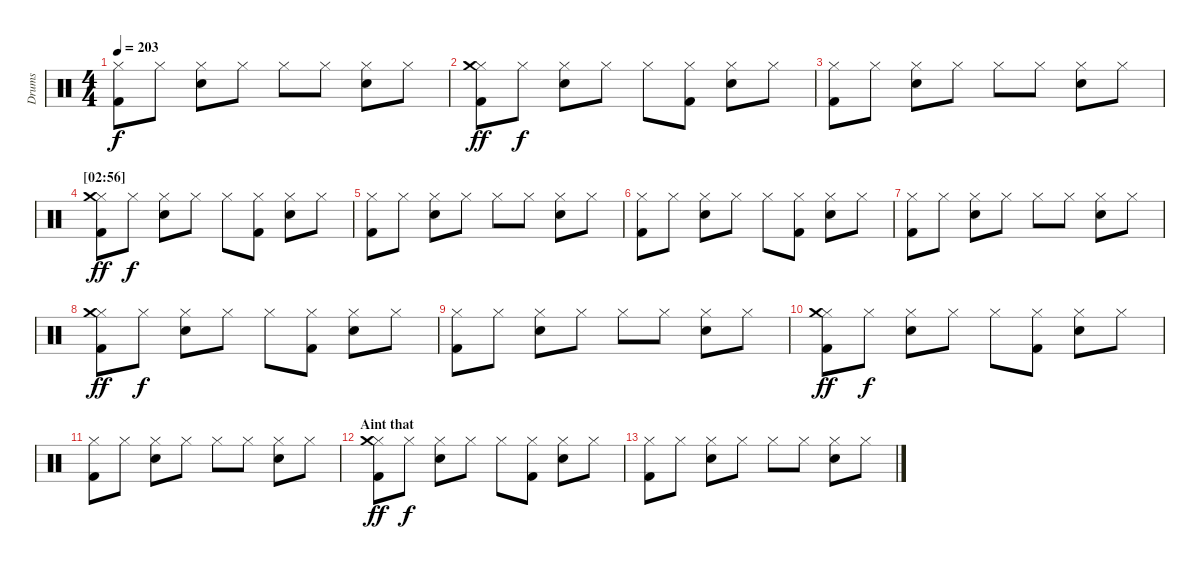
\track ("Drums" "Drums") {instrument percussion}
\staff {score}
\articulation defaults
\ts (4 4)
\tempo 203
\clef neutral
\ks c
("Hi-Hat (closed)" "Kick (hit) 2").8{dy f} "Hi-Hat (closed)".8 ("Hi-Hat (closed)" "Electric Snare (hit)").8 "Hi-Hat (closed)".8 "Hi-Hat (closed)".8 "Hi-Hat (closed)".8 ("Hi-Hat (closed)" "Electric Snare (hit)").8 "Hi-Hat (closed)".8 |
("Hi-Hat (closed)" "Crash medium (hit)" "Kick (hit) 2").8{dy ff} "Hi-Hat (closed)".8{dy f} ("Hi-Hat (closed)" "Electric Snare (hit)").8 "Hi-Hat (closed)".8 "Hi-Hat (closed)".8 ("Hi-Hat (closed)" "Kick (hit) 2").8 ("Hi-Hat (closed)" "Electric Snare (hit)").8 "Hi-Hat (closed)".8 |
("Hi-Hat (closed)" "Kick (hit) 2").8 "Hi-Hat (closed)".8 ("Hi-Hat (closed)" "Electric Snare (hit)").8 "Hi-Hat (closed)".8 "Hi-Hat (closed)".8 "Hi-Hat (closed)".8 ("Hi-Hat (closed)" "Electric Snare (hit)").8 "Hi-Hat (closed)".8 |
\section ("" "[02:56]")
("Hi-Hat (closed)" "Crash medium (hit)" "Kick (hit) 2").8{dy ff} "Hi-Hat (closed)".8{dy f} ("Hi-Hat (closed)" "Electric Snare (hit)").8 "Hi-Hat (closed)".8 "Hi-Hat (closed)".8 ("Hi-Hat (closed)" "Kick (hit) 2").8 ("Hi-Hat (closed)" "Electric Snare (hit)").8 "Hi-Hat (closed)".8 |
("Hi-Hat (closed)" "Kick (hit) 2").8 "Hi-Hat (closed)".8 ("Hi-Hat (closed)" "Electric Snare (hit)").8 "Hi-Hat (closed)".8 "Hi-Hat (closed)".8 "Hi-Hat (closed)".8 ("Hi-Hat (closed)" "Electric Snare (hit)").8 "Hi-Hat (closed)".8 |
("Hi-Hat (closed)" "Kick (hit) 2").8 "Hi-Hat (closed)".8 ("Hi-Hat (closed)" "Electric Snare (hit)").8 "Hi-Hat (closed)".8 "Hi-Hat (closed)".8 ("Hi-Hat (closed)" "Kick (hit) 2").8 ("Hi-Hat (closed)" "Electric Snare (hit)").8 "Hi-Hat (closed)".8 |
("Hi-Hat (closed)" "Kick (hit) 2").8 "Hi-Hat (closed)".8 ("Hi-Hat (closed)" "Electric Snare (hit)").8 "Hi-Hat (closed)".8 "Hi-Hat (closed)".8 "Hi-Hat (closed)".8 ("Hi-Hat (closed)" "Electric Snare (hit)").8 "Hi-Hat (closed)".8 |
("Hi-Hat (closed)" "Crash medium (hit)" "Kick (hit) 2").8{dy ff} "Hi-Hat (closed)".8{dy f} ("Hi-Hat (closed)" "Electric Snare (hit)").8 "Hi-Hat (closed)".8 "Hi-Hat (closed)".8 ("Hi-Hat (closed)" "Kick (hit) 2").8 ("Hi-Hat (closed)" "Electric Snare (hit)").8 "Hi-Hat (closed)".8 |
("Hi-Hat (closed)" "Kick (hit) 2").8 "Hi-Hat (closed)".8 ("Hi-Hat (closed)" "Electric Snare (hit)").8 "Hi-Hat (closed)".8 "Hi-Hat (closed)".8 "Hi-Hat (closed)".8 ("Hi-Hat (closed)" "Electric Snare (hit)").8 "Hi-Hat (closed)".8 |
("Hi-Hat (closed)" "Crash medium (hit)" "Kick (hit) 2").8{dy ff} "Hi-Hat (closed)".8{dy f} ("Hi-Hat (closed)" "Electric Snare (hit)").8 "Hi-Hat (closed)".8 "Hi-Hat (closed)".8 ("Hi-Hat (closed)" "Kick (hit) 2").8 ("Hi-Hat (closed)" "Electric Snare (hit)").8 "Hi-Hat (closed)".8 |
("Hi-Hat (closed)" "Kick (hit) 2").8 "Hi-Hat (closed)".8 ("Hi-Hat (closed)" "Electric Snare (hit)").8 "Hi-Hat (closed)".8 "Hi-Hat (closed)".8 "Hi-Hat (closed)".8 ("Hi-Hat (closed)" "Electric Snare (hit)").8 "Hi-Hat (closed)".8 |
\section ("" "Aint that")
("Hi-Hat (closed)" "Crash medium (hit)" "Kick (hit) 2").8{dy ff} "Hi-Hat (closed)".8{dy f} ("Hi-Hat (closed)" "Electric Snare (hit)").8 "Hi-Hat (closed)".8 "Hi-Hat (closed)".8 ("Hi-Hat (closed)" "Kick (hit) 2").8 ("Hi-Hat (closed)" "Electric Snare (hit)").8 "Hi-Hat (closed)".8 |
("Hi-Hat (closed)" "Kick (hit) 2").8 "Hi-Hat (closed)".8 ("Hi-Hat (closed)" "Electric Snare (hit)").8 "Hi-Hat (closed)".8 "Hi-Hat (closed)".8 "Hi-Hat (closed)".8 ("Hi-Hat (closed)" "Electric Snare (hit)").8 "Hi-Hat (closed)".8
